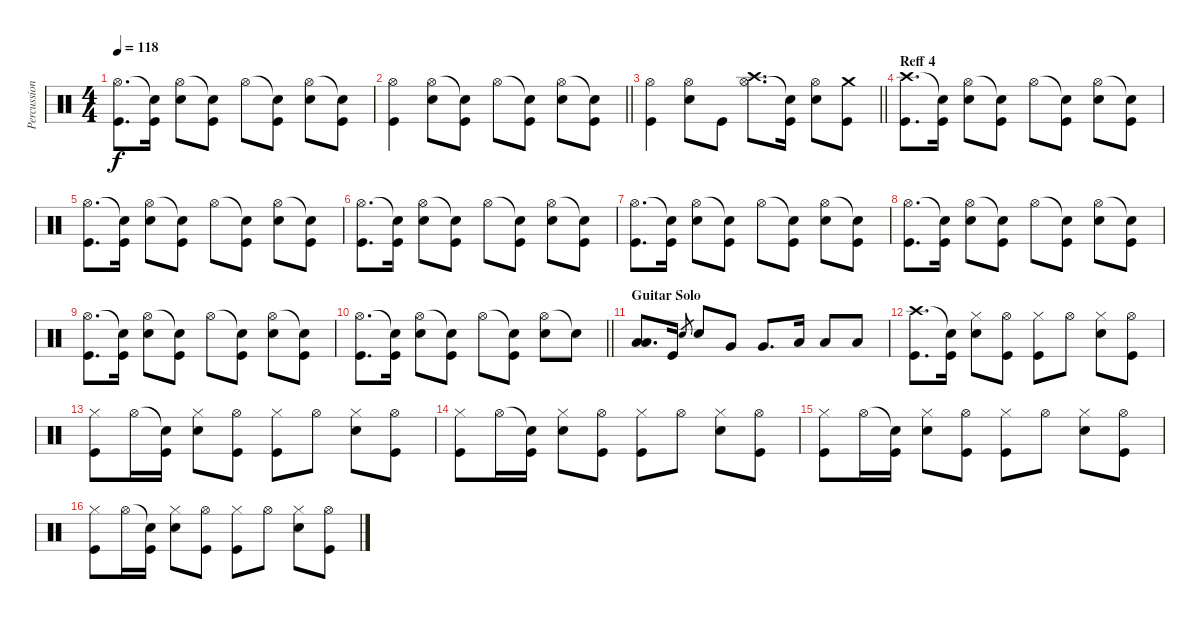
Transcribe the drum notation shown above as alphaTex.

\track ("Percussion 1" "Percussion") {instrument percussion}
\staff {score}
\articulation defaults
\ts (4 4)
\tempo 118
\clef neutral
\ks c
("Hi-Hat (open)" "Kick (hit)").8{d dy f} ("Snare (hit)"{t} "Kick (hit)").16 ("Hi-Hat (open)" "Electric Snare (hit)").8 ("Snare (hit)"{t} "Kick (hit)").8 "Hi-Hat (open)".8 ("Snare (hit)"{t} "Kick (hit)").8 ("Hi-Hat (open)" "Electric Snare (hit)").8 ("Snare (hit)"{t} "Kick (hit)").8 |
\barLineRight lightlight
("Hi-Hat (open)" "Kick (hit)").4 ("Hi-Hat (open)" "Electric Snare (hit)").8 ("Snare (hit)"{t} "Kick (hit)").8 "Hi-Hat (open)".8 ("Snare (hit)"{t} "Kick (hit)").8 ("Hi-Hat (open)" "Electric Snare (hit)").8 ("Snare (hit)"{t} "Kick (hit)").8 |
\barLineRight lightlight
("Hi-Hat (open)" "Kick (hit)").4 ("Hi-Hat (open)" "Electric Snare (hit)").8 "Kick (hit)".8 ("Hi-Hat (open)" "Crash high (hit)").8{d} ("Snare (hit)"{t} "Kick (hit)").16 ("Hi-Hat (open)" "Electric Snare (hit)").8 ("Crash medium (hit)" "Kick (hit)").8 |
\section ("" "Reff 4")
("Crash high (hit)" "Kick (hit)").8{d} ("Snare (hit)"{t} "Kick (hit)").16 ("Hi-Hat (open)" "Electric Snare (hit)").8 ("Snare (hit)"{t} "Kick (hit)").8 "Hi-Hat (open)".8 ("Snare (hit)"{t} "Kick (hit)").8 ("Hi-Hat (open)" "Electric Snare (hit)").8 ("Snare (hit)"{t} "Kick (hit)").8 |
("Hi-Hat (open)" "Kick (hit)").8{d} ("Snare (hit)"{t} "Kick (hit)").16 ("Hi-Hat (open)" "Electric Snare (hit)").8 ("Snare (hit)"{t} "Kick (hit)").8 "Hi-Hat (open)".8 ("Snare (hit)"{t} "Kick (hit)").8 ("Hi-Hat (open)" "Electric Snare (hit)").8 ("Snare (hit)"{t} "Kick (hit)").8 |
("Hi-Hat (open)" "Kick (hit)").8{d} ("Snare (hit)"{t} "Kick (hit)").16 ("Hi-Hat (open)" "Electric Snare (hit)").8 ("Snare (hit)"{t} "Kick (hit)").8 "Hi-Hat (open)".8 ("Snare (hit)"{t} "Kick (hit)").8 ("Hi-Hat (open)" "Electric Snare (hit)").8 ("Snare (hit)"{t} "Kick (hit)").8 |
("Hi-Hat (open)" "Kick (hit)").8{d} ("Snare (hit)"{t} "Kick (hit)").16 ("Hi-Hat (open)" "Electric Snare (hit)").8 ("Snare (hit)"{t} "Kick (hit)").8 "Hi-Hat (open)".8 ("Snare (hit)"{t} "Kick (hit)").8 ("Hi-Hat (open)" "Electric Snare (hit)").8 ("Snare (hit)"{t} "Kick (hit)").8 |
("Hi-Hat (open)" "Kick (hit)").8{d} ("Snare (hit)"{t} "Kick (hit)").16 ("Hi-Hat (open)" "Electric Snare (hit)").8 ("Snare (hit)"{t} "Kick (hit)").8 "Hi-Hat (open)".8 ("Snare (hit)"{t} "Kick (hit)").8 ("Hi-Hat (open)" "Electric Snare (hit)").8 ("Snare (hit)"{t} "Kick (hit)").8 |
("Hi-Hat (open)" "Kick (hit)").8{d} ("Snare (hit)"{t} "Kick (hit)").16 ("Hi-Hat (open)" "Electric Snare (hit)").8 ("Snare (hit)"{t} "Kick (hit)").8 "Hi-Hat (open)".8 ("Snare (hit)"{t} "Kick (hit)").8 ("Hi-Hat (open)" "Electric Snare (hit)").8 ("Snare (hit)"{t} "Kick (hit)").8 |
\barLineRight lightlight
("Hi-Hat (open)" "Kick (hit)").8{d} ("Snare (hit)"{t} "Kick (hit)").16 ("Hi-Hat (open)" "Electric Snare (hit)").8 ("Snare (hit)"{t} "Kick (hit)").8 "Hi-Hat (open)".8 ("Snare (hit)"{t} "Kick (hit)").8 ("Hi-Hat (open)" "Electric Snare (hit)").8 "Snare (hit)"{t}.8 |
\section ("" "Guitar Solo")
("Low Tom (hit)" "Low Floor Tom (hit)").8{d} "Kick (hit)".16 "Electric Snare (hit)".8{gr} "Electric Snare (hit)".8 "Very Low Tom (hit)".8 "Very Low Tom (hit)".8{d} "Low Floor Tom (hit)".16 "Low Floor Tom (hit)".8 "Low Tom (hit)".8 |
("Crash high (hit)" "Kick (hit)").8{d} ("Snare (hit)"{t} "Kick (hit)").16 ("Hi-Hat (closed)" "Electric Snare (hit)").8 ("Hi-Hat (open)" "Kick (hit)").8 ("Hi-Hat (closed)" "Kick (hit)").8 "Hi-Hat (open)".8 ("Hi-Hat (closed)" "Electric Snare (hit)").8 ("Hi-Hat (open)" "Kick (hit)").8 |
("Hi-Hat (closed)" "Kick (hit)").8 "Hi-Hat (open)".16 ("Snare (hit)"{t} "Kick (hit)").16 ("Hi-Hat (closed)" "Electric Snare (hit)").8 ("Hi-Hat (open)" "Kick (hit)").8 ("Hi-Hat (closed)" "Kick (hit)").8 "Hi-Hat (open)".8 ("Hi-Hat (closed)" "Electric Snare (hit)").8 ("Hi-Hat (open)" "Kick (hit)").8 |
("Hi-Hat (closed)" "Kick (hit)").8 "Hi-Hat (open)".16 ("Snare (hit)"{t} "Kick (hit)").16 ("Hi-Hat (closed)" "Electric Snare (hit)").8 ("Hi-Hat (open)" "Kick (hit)").8 ("Hi-Hat (closed)" "Kick (hit)").8 "Hi-Hat (open)".8 ("Hi-Hat (closed)" "Electric Snare (hit)").8 ("Hi-Hat (open)" "Kick (hit)").8 |
("Hi-Hat (closed)" "Kick (hit)").8 "Hi-Hat (open)".16 ("Snare (hit)"{t} "Kick (hit)").16 ("Hi-Hat (closed)" "Electric Snare (hit)").8 ("Hi-Hat (open)" "Kick (hit)").8 ("Hi-Hat (closed)" "Kick (hit)").8 "Hi-Hat (open)".8 ("Hi-Hat (closed)" "Electric Snare (hit)").8 ("Hi-Hat (open)" "Kick (hit)").8 |
("Hi-Hat (closed)" "Kick (hit)").8 "Hi-Hat (open)".16 ("Snare (hit)"{t} "Kick (hit)").16 ("Hi-Hat (closed)" "Electric Snare (hit)").8 ("Hi-Hat (open)" "Kick (hit)").8 ("Hi-Hat (closed)" "Kick (hit)").8 "Hi-Hat (open)".8 ("Hi-Hat (closed)" "Electric Snare (hit)").8 ("Hi-Hat (open)" "Kick (hit)").8
